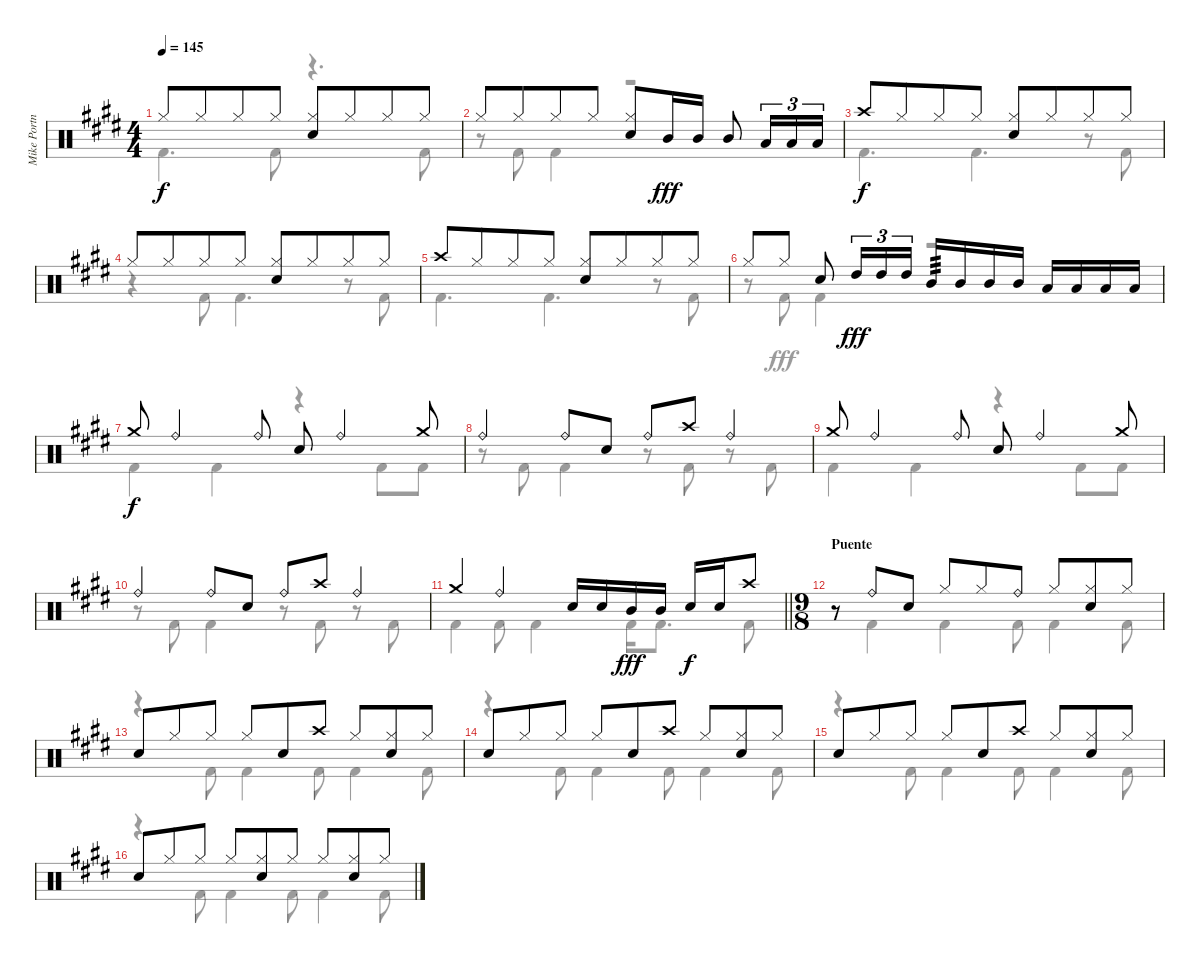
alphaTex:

\track ("Mike Portnoy" "Mike Portn") {instrument percussion}
\staff {score}
\articulation defaults
\voice
\ts (4 4)
\tempo 145
\clef neutral
\ks e "Hi-Hat (closed)".8{dy f} "Hi-Hat (closed)".8{beam merge} "Hi-Hat (closed)".8 "Hi-Hat (closed)".8
("Hi-Hat (closed)" "Snare (hit) 2").8 "Hi-Hat (closed)".8{beam merge} "Hi-Hat (closed)".8 "Hi-Hat (closed)".8 |
"Hi-Hat (closed)".8 "Hi-Hat (closed)".8{beam merge} "Hi-Hat (closed)".8 "Hi-Hat (closed)".8 ("Hi-Hat (closed)" "Snare (hit) 2").8 "Mid Tom (hit)".16{dy fff volume 16} "Mid Tom (hit)".16 "Mid Tom (hit)".8 "Low Tom (hit)".16{tu (3 2)} "Low Tom (hit)".16{tu (3 2)} "Low Tom (hit)".16{tu (3 2)} |
"Crash high (hit)".8{dy f volume 13} "Hi-Hat (closed)".8{beam merge} "Hi-Hat (closed)".8 "Hi-Hat (closed)".8 ("Hi-Hat (closed)" "Snare (hit) 2").8 "Hi-Hat (closed)".8{beam merge} "Hi-Hat (closed)".8 "Hi-Hat (closed)".8 |
"Hi-Hat (closed)".8 "Hi-Hat (closed)".8{beam merge} "Hi-Hat (closed)".8 "Hi-Hat (closed)".8 ("Hi-Hat (closed)" "Snare (hit) 2").8 "Hi-Hat (closed)".8{beam merge} "Hi-Hat (closed)".8 "Hi-Hat (closed)".8 |
"Crash high (hit)".8 "Hi-Hat (closed)".8{beam merge} "Hi-Hat (closed)".8 "Hi-Hat (closed)".8 ("Hi-Hat (closed)" "Snare (hit) 2").8 "Hi-Hat (closed)".8{beam merge} "Hi-Hat (closed)".8 "Hi-Hat (closed)".8 |
"Hi-Hat (closed)".8 "Hi-Hat (closed)".8 "Snare (hit) 2".8 "High Tom (hit)".16{tu (3 2) dy fff volume 16} "High Tom (hit)".16{tu (3 2)} "High Tom (hit)".16{tu (3 2)} "Mid Tom (hit)".16{tp 3} "Mid Tom (hit)".16 "Mid Tom (hit)".16 "Mid Tom (hit)".16 "Low Tom (hit)".16 "Low Tom (hit)".16 "Low Tom (hit)".16 "Low Tom (hit)".16 |
"Crash medium (hit)".8{dy f volume 13} "Ride (bell)".4 "Ride (bell)".8 "Snare (hit) 2".8 "Ride (bell)".4 "Crash medium (hit)".8 |
"Ride (bell)".4 "Ride (bell)".8 "Snare (hit) 2".8 "Ride (bell)".8 "Crash high (hit)".8 "Ride (bell)".4 |
"Crash medium (hit)".8 "Ride (bell)".4 "Ride (bell)".8 "Snare (hit) 2".8 "Ride (bell)".4 "Crash medium (hit)".8 |
"Ride (bell)".4 "Ride (bell)".8 "Snare (hit) 2".8 "Ride (bell)".8 "Crash high (hit)".8 "Ride (bell)".4 |
\barLineRight lightlight "Crash medium (hit)".4 "Ride (bell)".4 "Snare (hit) 2".16 "Snare (hit) 2".16 "Mid Tom (hit)".16{dy fff} "Mid Tom (hit)".16 "Snare (hit) 2".16{dy f} "Snare (hit) 2".16 "Crash high (hit)".8
|
\ts (9 8)
\section ("" "Puente")
r.8 "Ride (bell)".8 "Snare (hit) 2".8 "Hi-Hat (closed)".8 "Hi-Hat (closed)".8 "Ride (bell)".8 "Hi-Hat (closed)".8 ("Hi-Hat (closed)" "Snare (hit) 2").8 "Hi-Hat (closed)".8 |
"Snare (hit) 2".8 "Hi-Hat (closed)".8 "Hi-Hat (closed)".8 "Hi-Hat (closed)".8 "Snare (hit) 2".8 "Crash high (hit)".8 "Hi-Hat (closed)".8 ("Hi-Hat (closed)" "Snare (hit) 2").8 "Hi-Hat (closed)".8 |
"Snare (hit) 2".8 "Hi-Hat (closed)".8 "Hi-Hat (closed)".8 "Hi-Hat (closed)".8 "Snare (hit) 2".8 "Crash high (hit)".8 "Hi-Hat (closed)".8 ("Hi-Hat (closed)" "Snare (hit) 2").8 "Hi-Hat (closed)".8 |
"Snare (hit) 2".8 "Hi-Hat (closed)".8 "Hi-Hat (closed)".8 "Hi-Hat (closed)".8 "Snare (hit) 2".8 "Crash high (hit)".8 "Hi-Hat (closed)".8 ("Hi-Hat (closed)" "Snare (hit) 2").8 "Hi-Hat (closed)".8 |
"Snare (hit) 2".8 "Hi-Hat (closed)".8 "Hi-Hat (closed)".8 "Hi-Hat (closed)".8 ("Hi-Hat (closed)" "Snare (hit) 2").8 "Hi-Hat (closed)".8 "Hi-Hat (closed)".8 ("Hi-Hat (closed)" "Snare (hit) 2").8 "Hi-Hat (closed)".8
\voice
\clef neutral
\ottava regular
\simile none
\ks e "Kick (hit) 2".4{d dy f} "Kick (hit) 2".8
r.4{d} "Kick (hit) 2".8 |
r.8 "Kick (hit) 2".8 "Kick (hit) 2".4 r.2 |
"Kick (hit) 2".4{d} "Kick (hit) 2".4{d} r.8 "Kick (hit) 2".8 |
r.4 "Kick (hit) 2".8 "Kick (hit) 2".4{d} r.8 "Kick (hit) 2".8 |
"Kick (hit) 2".4{d} "Kick (hit) 2".4{d} r.8 "Kick (hit) 2".8 |
r.8 "Kick (hit) 2".8{dy fff} "Kick (hit) 2".4 r.2 |
"Kick (hit) 2".4{dy f} "Kick (hit) 2".4 r.4 "Kick (hit) 2".8 "Kick (hit) 2".8 |
r.8 "Kick (hit) 2".8 "Kick (hit) 2".4 r.8 "Kick (hit) 2".8 r.8 "Kick (hit) 2".8 |
"Kick (hit) 2".4 "Kick (hit) 2".4 r.4 "Kick (hit) 2".8 "Kick (hit) 2".8 |
r.8 "Kick (hit) 2".8 "Kick (hit) 2".4 r.8 "Kick (hit) 2".8 r.8 "Kick (hit) 2".8 |
\barLineRight lightlight "Kick (hit) 2".4 "Kick (hit) 2".8 "Kick (hit) 2".4 "Kick (hit) 2".16 "Kick (hit) 2".8{d} "Kick (hit) 2".8
|
r.8 "Kick (hit) 2".4 "Kick (hit) 2".4 "Kick (hit) 2".8 "Kick (hit) 2".4 "Kick (hit) 2".8 |
r.4 "Kick (hit) 2".8 "Kick (hit) 2".4 "Kick (hit) 2".8 "Kick (hit) 2".4 "Kick (hit) 2".8 |
r.4 "Kick (hit) 2".8 "Kick (hit) 2".4 "Kick (hit) 2".8 "Kick (hit) 2".4 "Kick (hit) 2".8 |
r.4 "Kick (hit) 2".8 "Kick (hit) 2".4 "Kick (hit) 2".8 "Kick (hit) 2".4 "Kick (hit) 2".8 |
r.4 "Kick (hit) 2".8 "Kick (hit) 2".4 "Kick (hit) 2".8 "Kick (hit) 2".4 "Kick (hit) 2".8
